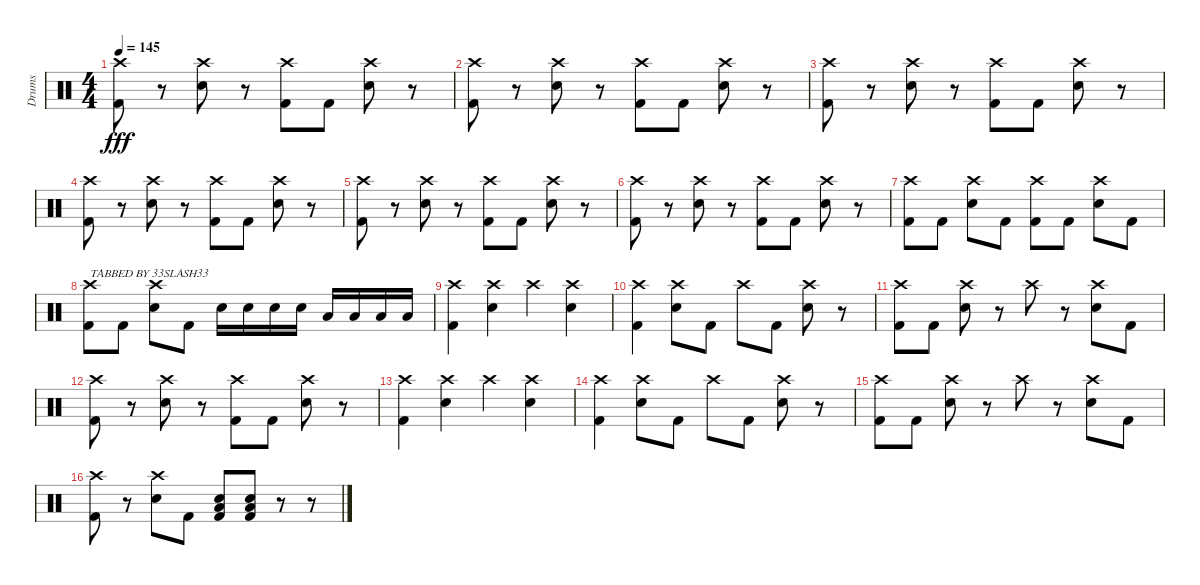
\track ("Drums" "Drums") {instrument percussion}
\staff {score}
\articulation defaults
\ts (4 4)
\tempo 145
\clef neutral
\ks c
("Crash high (hit)" "Kick (hit) 2").8{dy fff} r.8 ("Crash high (hit)" "Snare (hit) 2").8 r.8 ("Crash high (hit)" "Kick (hit) 2").8 "Kick (hit) 2".8 ("Crash high (hit)" "Snare (hit) 2").8 r.8 |
("Crash high (hit)" "Kick (hit) 2").8 r.8 ("Crash high (hit)" "Snare (hit) 2").8 r.8 ("Crash high (hit)" "Kick (hit) 2").8 "Kick (hit) 2".8 ("Crash high (hit)" "Snare (hit) 2").8 r.8 |
("Crash high (hit)" "Kick (hit) 2").8 r.8 ("Crash high (hit)" "Snare (hit) 2").8 r.8 ("Crash high (hit)" "Kick (hit) 2").8 "Kick (hit) 2".8 ("Crash high (hit)" "Snare (hit) 2").8 r.8 |
("Crash high (hit)" "Kick (hit) 2").8 r.8 ("Crash high (hit)" "Snare (hit) 2").8 r.8 ("Crash high (hit)" "Kick (hit) 2").8 "Kick (hit) 2".8 ("Crash high (hit)" "Snare (hit) 2").8 r.8 |
("Crash high (hit)" "Kick (hit) 2").8 r.8 ("Crash high (hit)" "Snare (hit) 2").8 r.8 ("Crash high (hit)" "Kick (hit) 2").8 "Kick (hit) 2".8 ("Crash high (hit)" "Snare (hit) 2").8 r.8 |
("Crash high (hit)" "Kick (hit) 2").8 r.8 ("Crash high (hit)" "Snare (hit) 2").8 r.8 ("Crash high (hit)" "Kick (hit) 2").8 "Kick (hit) 2".8 ("Crash high (hit)" "Snare (hit) 2").8 r.8 |
("Crash high (hit)" "Kick (hit) 2").8 "Kick (hit) 2".8 ("Crash high (hit)" "Snare (hit) 2").8 "Kick (hit) 2".8 ("Crash high (hit)" "Kick (hit) 2").8 "Kick (hit) 2".8 ("Crash high (hit)" "Snare (hit) 2").8 "Kick (hit) 2".8 |
("Crash high (hit)" "Kick (hit) 2").8{txt "TABBED BY 33SLASH33"} "Kick (hit) 2".8 ("Crash high (hit)" "Snare (hit) 2").8 "Kick (hit) 2".8 "Snare (hit) 2".16 "Snare (hit) 2".16 "Snare (hit) 2".16 "Snare (hit) 2".16 "Low Tom (hit)".16 "Low Tom (hit)".16 "Low Tom (hit)".16 "Low Tom (hit)".16 |
("Crash high (hit)" "Kick (hit) 2").4 ("Crash high (hit)" "Snare (hit) 2").4 "Crash high (hit)".4 ("Crash high (hit)" "Snare (hit) 2").4 |
("Crash high (hit)" "Kick (hit) 2").4 ("Crash high (hit)" "Snare (hit) 2").8 "Kick (hit) 2".8 "Crash high (hit)".8 "Kick (hit) 2".8 ("Crash high (hit)" "Snare (hit) 2").8 r.8 |
("Crash high (hit)" "Kick (hit) 2").8 "Kick (hit) 2".8 ("Crash high (hit)" "Snare (hit) 2").8 r.8 "Crash high (hit)".8 r.8 ("Crash high (hit)" "Snare (hit) 2").8 "Kick (hit) 2".8 |
("Crash high (hit)" "Kick (hit) 2").8 r.8 ("Crash high (hit)" "Snare (hit) 2").8 r.8 ("Crash high (hit)" "Kick (hit) 2").8 "Kick (hit) 2".8 ("Crash high (hit)" "Snare (hit) 2").8 r.8 |
("Crash high (hit)" "Kick (hit) 2").4 ("Crash high (hit)" "Snare (hit) 2").4 "Crash high (hit)".4 ("Crash high (hit)" "Snare (hit) 2").4 |
("Crash high (hit)" "Kick (hit) 2").4 ("Crash high (hit)" "Snare (hit) 2").8 "Kick (hit) 2".8 "Crash high (hit)".8 "Kick (hit) 2".8 ("Crash high (hit)" "Snare (hit) 2").8 r.8 |
("Crash high (hit)" "Kick (hit) 2").8 "Kick (hit) 2".8 ("Crash high (hit)" "Snare (hit) 2").8 r.8 "Crash high (hit)".8 r.8 ("Crash high (hit)" "Snare (hit) 2").8 "Kick (hit) 2".8 |
("Crash high (hit)" "Kick (hit) 2").8 r.8 ("Crash high (hit)" "Snare (hit) 2").8 "Kick (hit) 2".8 ("Snare (hit) 2" "Low Floor Tom (hit)" "Kick (hit) 2").8 ("Snare (hit) 2" "Low Floor Tom (hit)" "Kick (hit) 2").8 r.8 r.8
